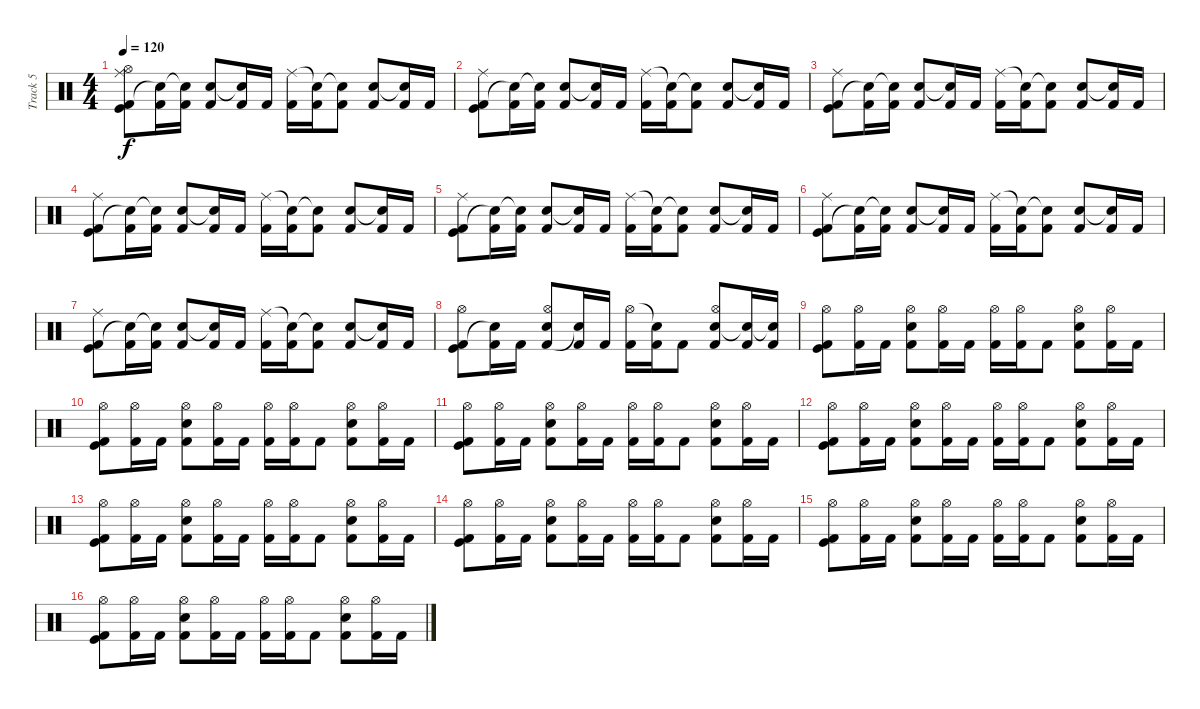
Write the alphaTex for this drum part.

\track ("Track 5" "Track 5") {instrument percussion}
\staff {score}
\articulation defaults
\ts (4 4)
\tempo 120
\clef neutral
\ks c
("Kick (hit)" "Kick (hit) 2" "Ride (middle)" "Hi-Hat (open)").8{dy f} ("Kick (hit) 2" "Snare (hit)"{t}).16 ("Kick (hit) 2" "Snare (hit)"{t}).16 ("Kick (hit) 2" "Snare (hit) 2").8 ("Kick (hit) 2" "Snare (hit)"{t}).16 "Kick (hit) 2".16 ("Kick (hit) 2" "Ride (middle)").16 ("Kick (hit) 2" "Snare (hit)"{t}).16 ("Kick (hit) 2" "Snare (hit)"{t}).8 ("Kick (hit) 2" "Snare (hit) 2").8 ("Kick (hit) 2" "Snare (hit)"{t}).16 "Kick (hit) 2".16 |
("Kick (hit)" "Kick (hit) 2" "Ride (middle)").8 ("Kick (hit) 2" "Snare (hit)"{t}).16 ("Kick (hit) 2" "Snare (hit)"{t}).16 ("Kick (hit) 2" "Snare (hit) 2").8 ("Kick (hit) 2" "Snare (hit)"{t}).16 "Kick (hit) 2".16 ("Kick (hit) 2" "Ride (middle)").16 ("Kick (hit) 2" "Snare (hit)"{t}).16 ("Kick (hit) 2" "Snare (hit)"{t}).8 ("Kick (hit) 2" "Snare (hit) 2").8 ("Kick (hit) 2" "Snare (hit)"{t}).16 "Kick (hit) 2".16 |
("Kick (hit)" "Kick (hit) 2" "Ride (middle)").8 ("Kick (hit) 2" "Snare (hit)"{t}).16 ("Kick (hit) 2" "Snare (hit)"{t}).16 ("Kick (hit) 2" "Snare (hit) 2").8 ("Kick (hit) 2" "Snare (hit)"{t}).16 "Kick (hit) 2".16 ("Kick (hit) 2" "Ride (middle)").16 ("Kick (hit) 2" "Snare (hit)"{t}).16 ("Kick (hit) 2" "Snare (hit)"{t}).8 ("Kick (hit) 2" "Snare (hit) 2").8 ("Kick (hit) 2" "Snare (hit)"{t}).16 "Kick (hit) 2".16 |
("Kick (hit)" "Kick (hit) 2" "Ride (middle)").8 ("Kick (hit) 2" "Snare (hit)"{t}).16 ("Kick (hit) 2" "Snare (hit)"{t}).16 ("Kick (hit) 2" "Snare (hit) 2").8 ("Kick (hit) 2" "Snare (hit)"{t}).16 "Kick (hit) 2".16 ("Kick (hit) 2" "Ride (middle)").16 ("Kick (hit) 2" "Snare (hit)"{t}).16 ("Kick (hit) 2" "Snare (hit)"{t}).8 ("Kick (hit) 2" "Snare (hit) 2").8 ("Kick (hit) 2" "Snare (hit)"{t}).16 "Kick (hit) 2".16 |
("Kick (hit)" "Kick (hit) 2" "Ride (middle)").8 ("Kick (hit) 2" "Snare (hit)"{t}).16 ("Kick (hit) 2" "Snare (hit)"{t}).16 ("Kick (hit) 2" "Snare (hit) 2").8 ("Kick (hit) 2" "Snare (hit)"{t}).16 "Kick (hit) 2".16 ("Kick (hit) 2" "Ride (middle)").16 ("Kick (hit) 2" "Snare (hit)"{t}).16 ("Kick (hit) 2" "Snare (hit)"{t}).8 ("Kick (hit) 2" "Snare (hit) 2").8 ("Kick (hit) 2" "Snare (hit)"{t}).16 "Kick (hit) 2".16 |
("Kick (hit)" "Kick (hit) 2" "Ride (middle)").8 ("Kick (hit) 2" "Snare (hit)"{t}).16 ("Kick (hit) 2" "Snare (hit)"{t}).16 ("Kick (hit) 2" "Snare (hit) 2").8 ("Kick (hit) 2" "Snare (hit)"{t}).16 "Kick (hit) 2".16 ("Kick (hit) 2" "Ride (middle)").16 ("Kick (hit) 2" "Snare (hit)"{t}).16 ("Kick (hit) 2" "Snare (hit)"{t}).8 ("Kick (hit) 2" "Snare (hit) 2").8 ("Kick (hit) 2" "Snare (hit)"{t}).16 "Kick (hit) 2".16 |
("Kick (hit)" "Kick (hit) 2" "Ride (middle)").8 ("Kick (hit) 2" "Snare (hit)"{t}).16 ("Kick (hit) 2" "Snare (hit)"{t}).16 ("Kick (hit) 2" "Snare (hit) 2").8 ("Kick (hit) 2" "Snare (hit)"{t}).16 "Kick (hit) 2".16 ("Kick (hit) 2" "Ride (middle)").16 ("Kick (hit) 2" "Snare (hit)"{t}).16 ("Kick (hit) 2" "Snare (hit)"{t}).8 ("Kick (hit) 2" "Snare (hit) 2").8 ("Kick (hit) 2" "Snare (hit)"{t}).16 "Kick (hit) 2".16 |
("Kick (hit)" "Kick (hit) 2" "Hi-Hat (open)").8 ("Kick (hit) 2" "Snare (hit)"{t}).16 "Kick (hit) 2".16 ("Snare (hit) 2" "Kick (hit) 2" "Hi-Hat (open)").8 ("Kick (hit) 2" "Snare (hit)"{t}).16 "Kick (hit) 2".16 ("Kick (hit) 2" "Hi-Hat (open)").16 ("Kick (hit) 2" "Snare (hit)"{t}).16 "Kick (hit) 2".8 ("Kick (hit) 2" "Snare (hit) 2" "Hi-Hat (open)").8 ("Kick (hit) 2" "Snare (hit)"{t}).16 ("Kick (hit) 2" "Snare (hit)"{t}).16 |
("Kick (hit)" "Kick (hit) 2" "Hi-Hat (open)").8 ("Kick (hit) 2" "Hi-Hat (open)").16 "Kick (hit) 2".16 ("Snare (hit) 2" "Kick (hit) 2" "Hi-Hat (open)").8 ("Kick (hit) 2" "Hi-Hat (open)").16 "Kick (hit) 2".16 ("Kick (hit) 2" "Hi-Hat (open)").16 ("Kick (hit) 2" "Hi-Hat (open)").16 "Kick (hit) 2".8 ("Kick (hit) 2" "Snare (hit) 2" "Hi-Hat (open)").8 ("Kick (hit) 2" "Hi-Hat (open)").16 "Kick (hit) 2".16 |
("Kick (hit)" "Kick (hit) 2" "Hi-Hat (open)").8 ("Kick (hit) 2" "Hi-Hat (open)").16 "Kick (hit) 2".16 ("Snare (hit) 2" "Kick (hit) 2" "Hi-Hat (open)").8 ("Kick (hit) 2" "Hi-Hat (open)").16 "Kick (hit) 2".16 ("Kick (hit) 2" "Hi-Hat (open)").16 ("Kick (hit) 2" "Hi-Hat (open)").16 "Kick (hit) 2".8 ("Kick (hit) 2" "Snare (hit) 2" "Hi-Hat (open)").8 ("Kick (hit) 2" "Hi-Hat (open)").16 "Kick (hit) 2".16 |
("Kick (hit)" "Kick (hit) 2" "Hi-Hat (open)").8 ("Kick (hit) 2" "Hi-Hat (open)").16 "Kick (hit) 2".16 ("Snare (hit) 2" "Kick (hit) 2" "Hi-Hat (open)").8 ("Kick (hit) 2" "Hi-Hat (open)").16 "Kick (hit) 2".16 ("Kick (hit) 2" "Hi-Hat (open)").16 ("Kick (hit) 2" "Hi-Hat (open)").16 "Kick (hit) 2".8 ("Kick (hit) 2" "Snare (hit) 2" "Hi-Hat (open)").8 ("Kick (hit) 2" "Hi-Hat (open)").16 "Kick (hit) 2".16 |
("Kick (hit)" "Kick (hit) 2" "Hi-Hat (open)").8 ("Kick (hit) 2" "Hi-Hat (open)").16 "Kick (hit) 2".16 ("Snare (hit) 2" "Kick (hit) 2" "Hi-Hat (open)").8 ("Kick (hit) 2" "Hi-Hat (open)").16 "Kick (hit) 2".16 ("Kick (hit) 2" "Hi-Hat (open)").16 ("Kick (hit) 2" "Hi-Hat (open)").16 "Kick (hit) 2".8 ("Kick (hit) 2" "Snare (hit) 2" "Hi-Hat (open)").8 ("Kick (hit) 2" "Hi-Hat (open)").16 "Kick (hit) 2".16 |
("Kick (hit)" "Kick (hit) 2" "Hi-Hat (open)").8 ("Kick (hit) 2" "Hi-Hat (open)").16 "Kick (hit) 2".16 ("Snare (hit) 2" "Kick (hit) 2" "Hi-Hat (open)").8 ("Kick (hit) 2" "Hi-Hat (open)").16 "Kick (hit) 2".16 ("Kick (hit) 2" "Hi-Hat (open)").16 ("Kick (hit) 2" "Hi-Hat (open)").16 "Kick (hit) 2".8 ("Kick (hit) 2" "Snare (hit) 2" "Hi-Hat (open)").8 ("Kick (hit) 2" "Hi-Hat (open)").16 "Kick (hit) 2".16 |
("Kick (hit)" "Kick (hit) 2" "Hi-Hat (open)").8 ("Kick (hit) 2" "Hi-Hat (open)").16 "Kick (hit) 2".16 ("Snare (hit) 2" "Kick (hit) 2" "Hi-Hat (open)").8 ("Kick (hit) 2" "Hi-Hat (open)").16 "Kick (hit) 2".16 ("Kick (hit) 2" "Hi-Hat (open)").16 ("Kick (hit) 2" "Hi-Hat (open)").16 "Kick (hit) 2".8 ("Kick (hit) 2" "Snare (hit) 2" "Hi-Hat (open)").8 ("Kick (hit) 2" "Hi-Hat (open)").16 "Kick (hit) 2".16 |
("Kick (hit)" "Kick (hit) 2" "Hi-Hat (open)").8 ("Kick (hit) 2" "Hi-Hat (open)").16 "Kick (hit) 2".16 ("Snare (hit) 2" "Kick (hit) 2" "Hi-Hat (open)").8 ("Kick (hit) 2" "Hi-Hat (open)").16 "Kick (hit) 2".16 ("Kick (hit) 2" "Hi-Hat (open)").16 ("Kick (hit) 2" "Hi-Hat (open)").16 "Kick (hit) 2".8 ("Kick (hit) 2" "Snare (hit) 2" "Hi-Hat (open)").8 ("Kick (hit) 2" "Hi-Hat (open)").16 "Kick (hit) 2".16 |
("Kick (hit)" "Kick (hit) 2" "Hi-Hat (open)").8 ("Kick (hit) 2" "Hi-Hat (open)").16 "Kick (hit) 2".16 ("Snare (hit) 2" "Kick (hit) 2" "Hi-Hat (open)").8 ("Kick (hit) 2" "Hi-Hat (open)").16 "Kick (hit) 2".16 ("Kick (hit) 2" "Hi-Hat (open)").16 ("Kick (hit) 2" "Hi-Hat (open)").16 "Kick (hit) 2".8 ("Kick (hit) 2" "Snare (hit) 2" "Hi-Hat (open)").8 ("Kick (hit) 2" "Hi-Hat (open)").16 "Kick (hit) 2".16
